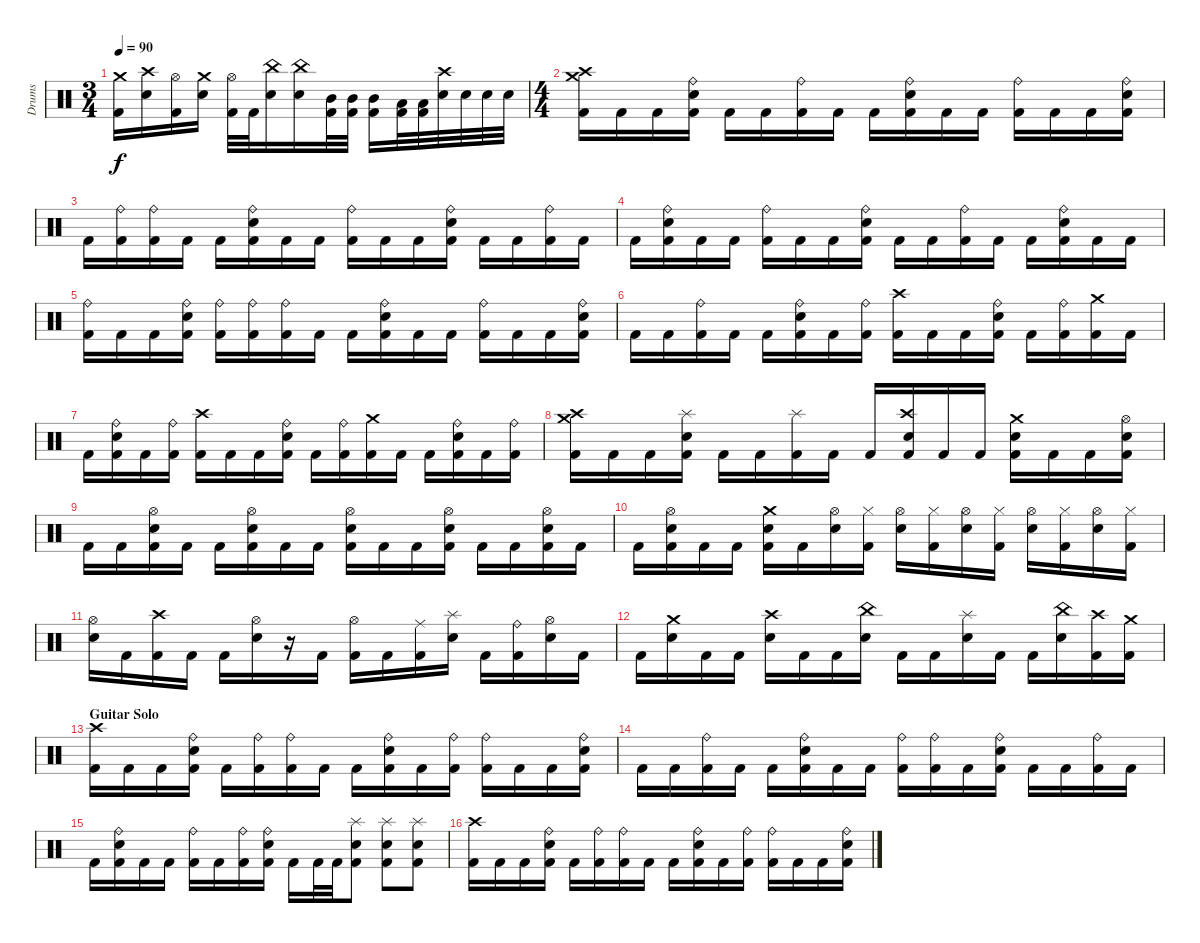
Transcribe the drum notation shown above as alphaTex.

\track ("Drums" "Drums") {instrument percussion}
\staff {score}
\articulation defaults
\ts (3 4)
\tempo 90
\clef neutral
\ks c
("Crash medium (hit)" "Kick (hit) 2").16{dy f} ("Crash high (hit)" "Snare (hit) 2").16 ("Hi-Hat (open)" "Kick (hit) 2").16 ("Crash medium (hit)" "Snare (hit) 2").16 ("Hi-Hat (open)" "Kick (hit) 2").32 "Kick (hit) 2".32 ("China (hit)" "Snare (hit) 2").16 ("China (hit)" "Snare (hit) 2").16 ("Mid Tom (hit)" "Kick (hit) 2").32 ("Mid Tom (hit)" "Kick (hit) 2").32 ("Mid Tom (hit)" "Kick (hit) 2").16 ("Low Tom (hit)" "Kick (hit) 2").32 ("Low Tom (hit)" "Kick (hit) 2").32 ("Crash high (hit)" "Snare (hit) 2").32 "Snare (hit) 2".32 "Snare (hit) 2".32 "Snare (hit) 2".32 |
\ts (4 4)
("Crash high (hit)" "Crash medium (hit)" "Kick (hit) 2").16 "Kick (hit) 2".16 "Kick (hit) 2".16 ("Ride (bell)" "Snare (hit) 2" "Kick (hit) 2").16 "Kick (hit) 2".16 "Kick (hit) 2".16 ("Ride (bell)" "Kick (hit) 2").16 "Kick (hit) 2".16 "Kick (hit) 2".16 ("Ride (bell)" "Snare (hit) 2" "Kick (hit) 2").16 "Kick (hit) 2".16 "Kick (hit) 2".16 ("Ride (bell)" "Kick (hit) 2").16 "Kick (hit) 2".16 "Kick (hit) 2".16 ("Ride (bell)" "Snare (hit) 2" "Kick (hit) 2").16 |
"Kick (hit) 2".16 ("Ride (bell)" "Kick (hit) 2").16 ("Ride (bell)" "Kick (hit) 2").16 "Kick (hit) 2".16 "Kick (hit) 2".16 ("Ride (bell)" "Snare (hit) 2" "Kick (hit) 2").16 "Kick (hit) 2".16 "Kick (hit) 2".16 ("Ride (bell)" "Kick (hit) 2").16 "Kick (hit) 2".16 "Kick (hit) 2".16 ("Ride (bell)" "Snare (hit) 2" "Kick (hit) 2").16 "Kick (hit) 2".16 "Kick (hit) 2".16 ("Ride (bell)" "Kick (hit) 2").16 "Kick (hit) 2".16 |
"Kick (hit) 2".16 ("Ride (bell)" "Snare (hit) 2" "Kick (hit) 2").16 "Kick (hit) 2".16 "Kick (hit) 2".16 ("Ride (bell)" "Kick (hit) 2").16 "Kick (hit) 2".16 "Kick (hit) 2".16 ("Ride (bell)" "Snare (hit) 2" "Kick (hit) 2").16 "Kick (hit) 2".16 "Kick (hit) 2".16 ("Ride (bell)" "Kick (hit) 2").16 "Kick (hit) 2".16 "Kick (hit) 2".16 ("Ride (bell)" "Snare (hit) 2" "Kick (hit) 2").16 "Kick (hit) 2".16 "Kick (hit) 2".16 |
("Ride (bell)" "Kick (hit) 2").16 "Kick (hit) 2".16 "Kick (hit) 2".16 ("Ride (bell)" "Snare (hit) 2" "Kick (hit) 2").16 ("Ride (bell)" "Kick (hit) 2").16 ("Ride (bell)" "Kick (hit) 2").16 ("Ride (bell)" "Kick (hit) 2").16 "Kick (hit) 2".16 "Kick (hit) 2".16 ("Ride (bell)" "Snare (hit) 2" "Kick (hit) 2").16 "Kick (hit) 2".16 "Kick (hit) 2".16 ("Ride (bell)" "Kick (hit) 2").16 "Kick (hit) 2".16 "Kick (hit) 2".16 ("Ride (bell)" "Snare (hit) 2" "Kick (hit) 2").16 |
"Kick (hit) 2".16 "Kick (hit) 2".16 ("Ride (bell)" "Kick (hit) 2").16 "Kick (hit) 2".16 "Kick (hit) 2".16 ("Ride (bell)" "Snare (hit) 2" "Kick (hit) 2").16 "Kick (hit) 2".16 ("Ride (bell)" "Kick (hit) 2").16 ("Crash high (hit)" "Kick (hit) 2").16 "Kick (hit) 2".16 "Kick (hit) 2".16 ("Ride (bell)" "Snare (hit) 2" "Kick (hit) 2").16 "Kick (hit) 2".16 ("Ride (bell)" "Kick (hit) 2").16 ("Crash medium (hit)" "Kick (hit) 2").16 "Kick (hit) 2".16 |
"Kick (hit) 2".16 ("Ride (bell)" "Snare (hit) 2" "Kick (hit) 2").16 "Kick (hit) 2".16 ("Ride (bell)" "Kick (hit) 2").16 ("Crash high (hit)" "Kick (hit) 2").16 "Kick (hit) 2".16 "Kick (hit) 2".16 ("Ride (bell)" "Snare (hit) 2" "Kick (hit) 2").16 "Kick (hit) 2".16 ("Ride (bell)" "Kick (hit) 2").16 ("Crash medium (hit)" "Kick (hit) 2").16 "Kick (hit) 2".16 "Kick (hit) 2".16 ("Ride (bell)" "Snare (hit) 2" "Kick (hit) 2").16 "Kick (hit) 2".16 ("Ride (bell)" "Kick (hit) 2").16 |
("Crash medium (hit)" "Crash high (hit)" "Kick (hit) 2").16 "Kick (hit) 2".16 "Kick (hit) 2".16 ("Splash (hit)" "Snare (hit) 2" "Kick (hit) 2").16 "Kick (hit) 2".16 "Kick (hit) 2".16 ("Splash (hit)" "Kick (hit) 2").16 "Kick (hit) 2".16 "Kick (hit) 2".16 ("Crash high (hit)" "Snare (hit) 2" "Kick (hit) 2").16 "Kick (hit) 2".16 "Kick (hit) 2".16 ("Crash medium (hit)" "Snare (hit) 2" "Kick (hit) 2").16 "Kick (hit) 2".16 "Kick (hit) 2".16 ("Hi-Hat (open)" "Snare (hit) 2" "Kick (hit) 2").16 |
"Kick (hit) 2".16 "Kick (hit) 2".16 ("Hi-Hat (open)" "Snare (hit) 2" "Kick (hit) 2").16 "Kick (hit) 2".16 "Kick (hit) 2".16 ("Hi-Hat (open)" "Snare (hit) 2" "Kick (hit) 2").16 "Kick (hit) 2".16 "Kick (hit) 2".16 ("Hi-Hat (open)" "Snare (hit) 2" "Kick (hit) 2").16 "Kick (hit) 2".16 "Kick (hit) 2".16 ("Hi-Hat (open)" "Snare (hit) 2" "Kick (hit) 2").16 "Kick (hit) 2".16 "Kick (hit) 2".16 ("Hi-Hat (open)" "Snare (hit) 2" "Kick (hit) 2").16 "Kick (hit) 2".16 |
"Kick (hit) 2".16 ("Hi-Hat (open)" "Snare (hit) 2" "Kick (hit) 2").16 "Kick (hit) 2".16 "Kick (hit) 2".16 ("Crash medium (hit)" "Snare (hit) 2" "Kick (hit) 2").16 "Kick (hit) 2".16 ("Hi-Hat (open)" "Snare (hit) 2").16 ("Hi-Hat (closed)" "Kick (hit) 2").16 ("Hi-Hat (open)" "Snare (hit) 2").16 ("Hi-Hat (closed)" "Kick (hit) 2").16 ("Hi-Hat (open)" "Snare (hit) 2").16 ("Hi-Hat (closed)" "Kick (hit) 2").16 ("Hi-Hat (open)" "Snare (hit) 2").16 ("Hi-Hat (closed)" "Kick (hit) 2").16 ("Hi-Hat (open)" "Snare (hit) 2").16 ("Hi-Hat (closed)" "Kick (hit) 2").16 |
("Hi-Hat (open)" "Snare (hit) 2").16 "Kick (hit) 2".16 ("Crash high (hit)" "Kick (hit) 2").16 "Kick (hit) 2".16 "Kick (hit) 2".16 ("Hi-Hat (open)" "Snare (hit) 2").16 r.16 "Kick (hit) 2".16 ("Hi-Hat (open)" "Kick (hit) 2").16 "Kick (hit) 2".16 ("Ride (middle)" "Kick (hit) 2").16 ("Splash (hit)" "Snare (hit) 2").16 "Kick (hit) 2".16 ("Ride (bell)" "Kick (hit) 2").16 ("Hi-Hat (open)" "Snare (hit) 2").16 "Kick (hit) 2".16 |
"Kick (hit) 2".16 ("Crash medium (hit)" "Snare (hit) 2").16 "Kick (hit) 2".16 "Kick (hit) 2".16 ("Crash high (hit)" "Snare (hit) 2").16 "Kick (hit) 2".16 "Kick (hit) 2".16 ("China (hit)" "Snare (hit) 2").16 "Kick (hit) 2".16 "Kick (hit) 2".16 ("Splash (hit)" "Snare (hit) 2").16 "Kick (hit) 2".16 "Kick (hit) 2".16 ("China (hit)" "Snare (hit) 2").16 ("Crash high (hit)" "Kick (hit) 2").16 ("Crash medium (hit)" "Kick (hit) 2").16 |
\section ("" "Guitar Solo")
("Crash high (hit)" "Kick (hit) 2").16 "Kick (hit) 2".16 "Kick (hit) 2".16 ("Ride (bell)" "Snare (hit) 2" "Kick (hit) 2").16 "Kick (hit) 2".16 ("Ride (bell)" "Kick (hit) 2").16 ("Ride (bell)" "Kick (hit) 2").16 "Kick (hit) 2".16 "Kick (hit) 2".16 ("Ride (bell)" "Snare (hit) 2" "Kick (hit) 2").16 "Kick (hit) 2".16 ("Ride (bell)" "Kick (hit) 2").16 ("Ride (bell)" "Kick (hit) 2").16 "Kick (hit) 2".16 "Kick (hit) 2".16 ("Ride (bell)" "Snare (hit) 2" "Kick (hit) 2").16 |
"Kick (hit) 2".16 "Kick (hit) 2".16 ("Ride (bell)" "Kick (hit) 2").16 "Kick (hit) 2".16 "Kick (hit) 2".16 ("Ride (bell)" "Snare (hit) 2" "Kick (hit) 2").16 "Kick (hit) 2".16 "Kick (hit) 2".16 ("Ride (bell)" "Kick (hit) 2").16 ("Ride (bell)" "Kick (hit) 2").16 "Kick (hit) 2".16 ("Ride (bell)" "Snare (hit) 2" "Kick (hit) 2").16 "Kick (hit) 2".16 "Kick (hit) 2".16 ("Ride (bell)" "Kick (hit) 2").16 "Kick (hit) 2".16 |
"Kick (hit) 2".16 ("Ride (bell)" "Snare (hit) 2" "Kick (hit) 2").16 "Kick (hit) 2".16 "Kick (hit) 2".16 ("Ride (bell)" "Kick (hit) 2").16 "Kick (hit) 2".16 ("Ride (bell)" "Kick (hit) 2").16 ("Ride (bell)" "Snare (hit) 2" "Kick (hit) 2").16 "Kick (hit) 2".16 "Kick (hit) 2".32 "Kick (hit) 2".32 ("Splash (hit)" "Snare (hit) 2" "Kick (hit) 2").8 ("Splash (hit)" "Snare (hit) 2" "Kick (hit) 2").8 ("Splash (hit)" "Snare (hit) 2" "Kick (hit) 2").8 |
("Crash high (hit)" "Kick (hit) 2").16 "Kick (hit) 2".16 "Kick (hit) 2".16 ("Ride (bell)" "Snare (hit) 2" "Kick (hit) 2").16 "Kick (hit) 2".16 ("Ride (bell)" "Kick (hit) 2").16 ("Ride (bell)" "Kick (hit) 2").16 "Kick (hit) 2".16 "Kick (hit) 2".16 ("Ride (bell)" "Snare (hit) 2" "Kick (hit) 2").16 "Kick (hit) 2".16 ("Ride (bell)" "Kick (hit) 2").16 ("Ride (bell)" "Kick (hit) 2").16 "Kick (hit) 2".16 "Kick (hit) 2".16 ("Ride (bell)" "Snare (hit) 2" "Kick (hit) 2").16
